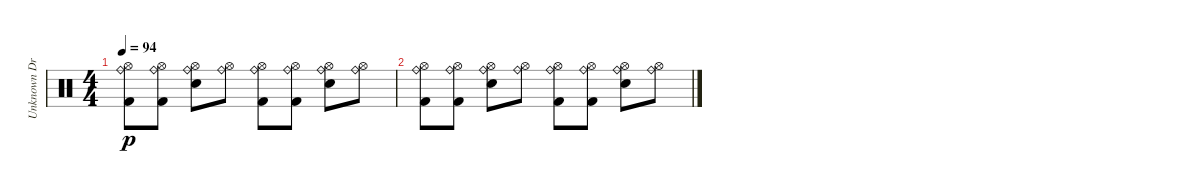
\track ("Unknown Drum Player" "Unknown Dr") {instrument percussion}
\staff {score}
\articulation defaults
\ts (4 4)
\tempo 94
\clef neutral
\ks c
("Ride (bell)" "Hi-Hat (open)" "Kick (hit) 2").8{dy p} ("Ride (bell)" "Hi-Hat (open)" "Kick (hit) 2").8 ("Ride (bell)" "Hi-Hat (open)" "Electric Snare (hit)").8 ("Ride (bell)" "Hi-Hat (open)").8 ("Ride (bell)" "Hi-Hat (open)" "Kick (hit) 2").8 ("Ride (bell)" "Hi-Hat (open)" "Kick (hit) 2").8 ("Ride (bell)" "Hi-Hat (open)" "Electric Snare (hit)").8 ("Ride (bell)" "Hi-Hat (open)").8 |
("Ride (bell)" "Hi-Hat (open)" "Kick (hit) 2").8 ("Ride (bell)" "Hi-Hat (open)" "Kick (hit) 2").8 ("Ride (bell)" "Hi-Hat (open)" "Electric Snare (hit)").8 ("Ride (bell)" "Hi-Hat (open)").8 ("Ride (bell)" "Hi-Hat (open)" "Kick (hit) 2").8 ("Ride (bell)" "Hi-Hat (open)" "Kick (hit) 2").8 ("Ride (bell)" "Hi-Hat (open)" "Electric Snare (hit)").8 ("Ride (bell)" "Hi-Hat (open)").8
